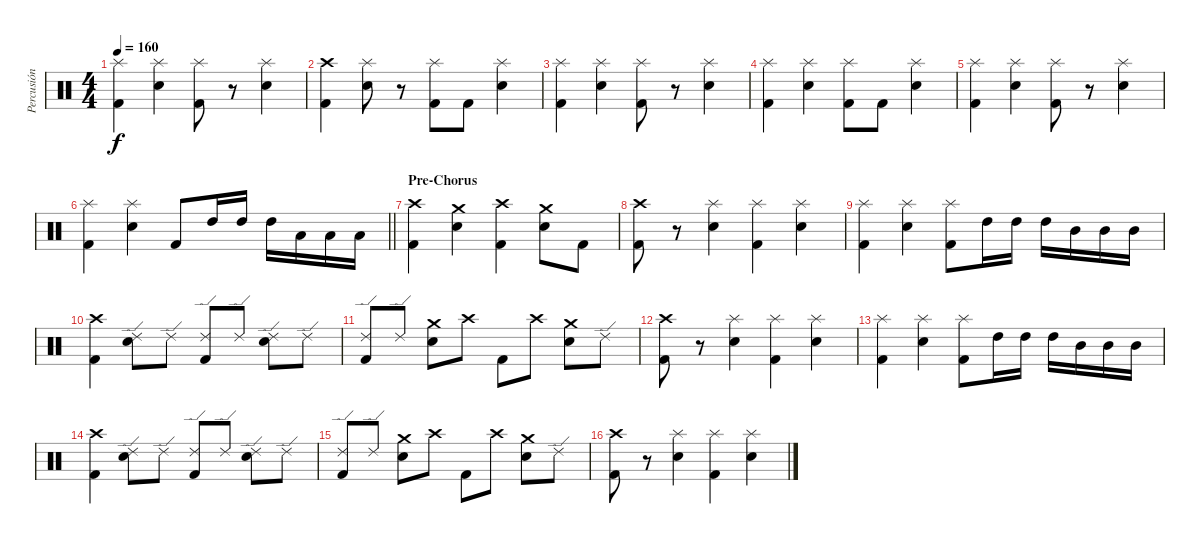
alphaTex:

\track ("Percusión" "Percusión") {instrument percussion}
\staff {score}
\articulation defaults
\ts (4 4)
\tempo 160
\clef neutral
\ks c
("Splash (hit)" "Kick (hit) 2").4{dy f} ("Splash (hit)" "Electric Snare (hit)").4 ("Splash (hit)" "Kick (hit) 2").8 r.8 ("Splash (hit)" "Electric Snare (hit)").4 |
("Crash high (hit)" "Kick (hit) 2").4 ("Splash (hit)" "Electric Snare (hit)").8 r.8 ("Splash (hit)" "Kick (hit) 2").8 "Kick (hit) 2".8 ("Splash (hit)" "Electric Snare (hit)").4 |
("Splash (hit)" "Kick (hit) 2").4 ("Splash (hit)" "Electric Snare (hit)").4 ("Splash (hit)" "Kick (hit) 2").8 r.8 ("Splash (hit)" "Electric Snare (hit)").4 |
("Splash (hit)" "Kick (hit) 2").4 ("Splash (hit)" "Electric Snare (hit)").4 ("Splash (hit)" "Kick (hit) 2").8 "Kick (hit) 2".8 ("Splash (hit)" "Electric Snare (hit)").4 |
("Splash (hit)" "Kick (hit) 2").4 ("Splash (hit)" "Electric Snare (hit)").4 ("Splash (hit)" "Kick (hit) 2").8 r.8 ("Splash (hit)" "Electric Snare (hit)").4 |
\barLineRight lightlight
("Splash (hit)" "Kick (hit) 2").4 ("Splash (hit)" "Electric Snare (hit)").4 "Kick (hit) 2".8 "High Tom (hit)".16 "High Tom (hit)".16 "High Tom (hit)".16 "Low Tom (hit)".16 "Low Tom (hit)".16 "Low Tom (hit)".16 |
\section ("" "Pre-Chorus ")
("Crash high (hit)" "Kick (hit) 2").4 ("Crash medium (hit)" "Electric Snare (hit)").4 ("Crash high (hit)" "Kick (hit) 2").4 ("Crash medium (hit)" "Electric Snare (hit)").8 "Kick (hit) 2".8 |
("Crash high (hit)" "Kick (hit) 2").8 r.8 ("Splash (hit)" "Electric Snare (hit)").4 ("Splash (hit)" "Kick (hit) 2").4 ("Splash (hit)" "Electric Snare (hit)").4 |
("Splash (hit)" "Kick (hit) 2").4 ("Splash (hit)" "Electric Snare (hit)").4 ("Splash (hit)" "Kick (hit) 2").8 "High Tom (hit)".16 "High Tom (hit)".16 "High Tom (hit)".16 "Mid Tom (hit)".16 "Mid Tom (hit)".16 "Mid Tom (hit)".16 |
("Crash high (hit)" "Kick (hit) 2").4 ("Ride (edge) 2" "Electric Snare (hit)").8 "Ride (edge) 2".8 ("Ride (edge) 2" "Kick (hit) 2").8 "Ride (edge) 2".8 ("Ride (edge) 2" "Electric Snare (hit)").8 "Ride (edge) 2".8 |
("Ride (edge) 2" "Kick (hit) 2").8 "Ride (edge) 2".8 ("Crash medium (hit)" "Electric Snare (hit)").8 "Crash high (hit)".8 "Kick (hit) 2".8 "Crash high (hit)".8 ("Crash medium (hit)" "Electric Snare (hit)").8 "Ride (edge) 2".8 |
("Crash high (hit)" "Kick (hit) 2").8 r.8 ("Splash (hit)" "Electric Snare (hit)").4 ("Splash (hit)" "Kick (hit) 2").4 ("Splash (hit)" "Electric Snare (hit)").4 |
("Splash (hit)" "Kick (hit) 2").4 ("Splash (hit)" "Electric Snare (hit)").4 ("Splash (hit)" "Kick (hit) 2").8 "High Tom (hit)".16 "High Tom (hit)".16 "High Tom (hit)".16 "Mid Tom (hit)".16 "Mid Tom (hit)".16 "Mid Tom (hit)".16 |
("Crash high (hit)" "Kick (hit) 2").4 ("Ride (edge) 2" "Electric Snare (hit)").8 "Ride (edge) 2".8 ("Ride (edge) 2" "Kick (hit) 2").8 "Ride (edge) 2".8 ("Ride (edge) 2" "Electric Snare (hit)").8 "Ride (edge) 2".8 |
("Ride (edge) 2" "Kick (hit) 2").8 "Ride (edge) 2".8 ("Crash medium (hit)" "Electric Snare (hit)").8 "Crash high (hit)".8 "Kick (hit) 2".8 "Crash high (hit)".8 ("Crash medium (hit)" "Electric Snare (hit)").8 "Ride (edge) 2".8 |
("Crash high (hit)" "Kick (hit) 2").8 r.8 ("Splash (hit)" "Electric Snare (hit)").4 ("Splash (hit)" "Kick (hit) 2").4 ("Splash (hit)" "Electric Snare (hit)").4
